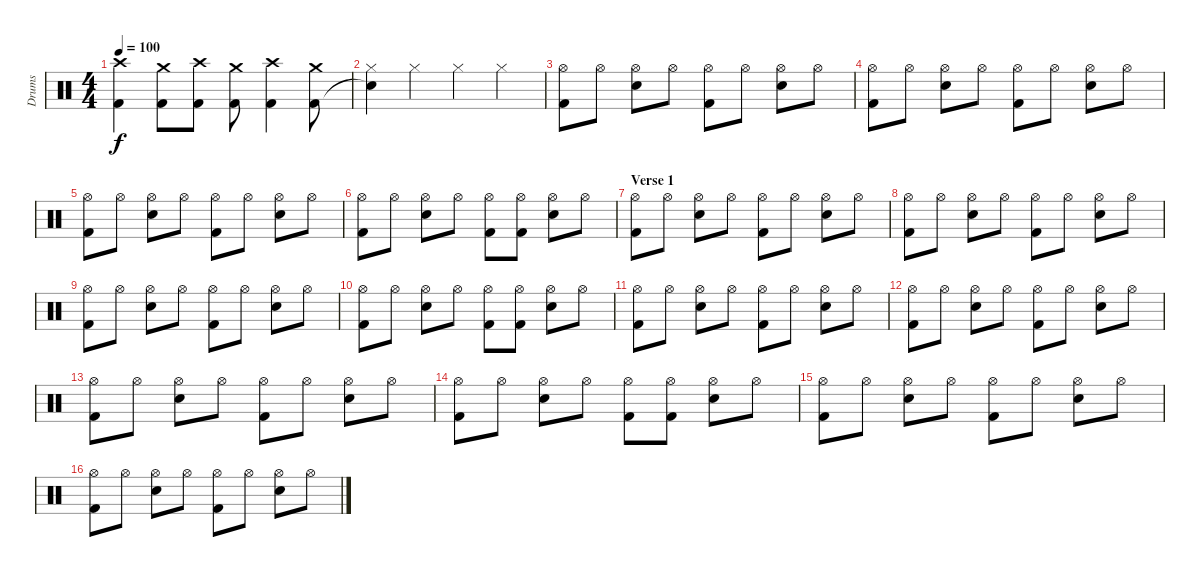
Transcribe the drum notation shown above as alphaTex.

\track ("Drums" "Drums") {instrument percussion}
\staff {score}
\articulation defaults
\ts (4 4)
\tempo 100
\clef neutral
\ks c
("Crash high (hit)" "Kick (hit) 2").4{dy f} ("Crash medium (hit)" "Kick (hit) 2").8 ("Crash high (hit)" "Kick (hit) 2").8 ("Crash medium (hit)" "Kick (hit) 2").8 ("Crash high (hit)" "Kick (hit) 2").4 ("Crash medium (hit)" "Kick (hit) 2").8 |
("Hi-Hat (closed)" "Snare (hit)"{t}).4 "Hi-Hat (closed)".4 "Hi-Hat (closed)".4 "Hi-Hat (closed)".4 |
("Hi-Hat (open)" "Kick (hit) 2").8 "Hi-Hat (open)".8 ("Hi-Hat (open)" "Electric Snare (hit)").8 "Hi-Hat (open)".8 ("Hi-Hat (open)" "Kick (hit) 2").8 "Hi-Hat (open)".8 ("Hi-Hat (open)" "Electric Snare (hit)").8 "Hi-Hat (open)".8 |
("Hi-Hat (open)" "Kick (hit) 2").8 "Hi-Hat (open)".8 ("Hi-Hat (open)" "Electric Snare (hit)").8 "Hi-Hat (open)".8 ("Hi-Hat (open)" "Kick (hit) 2").8 "Hi-Hat (open)".8 ("Hi-Hat (open)" "Electric Snare (hit)").8 "Hi-Hat (open)".8 |
("Hi-Hat (open)" "Kick (hit) 2").8 "Hi-Hat (open)".8 ("Hi-Hat (open)" "Electric Snare (hit)").8 "Hi-Hat (open)".8 ("Hi-Hat (open)" "Kick (hit) 2").8 "Hi-Hat (open)".8 ("Hi-Hat (open)" "Electric Snare (hit)").8 "Hi-Hat (open)".8 |
("Hi-Hat (open)" "Kick (hit) 2").8 "Hi-Hat (open)".8 ("Hi-Hat (open)" "Electric Snare (hit)").8 "Hi-Hat (open)".8 ("Hi-Hat (open)" "Kick (hit) 2").8 ("Hi-Hat (open)" "Kick (hit) 2").8 ("Hi-Hat (open)" "Electric Snare (hit)").8 "Hi-Hat (open)".8 |
\section ("" "Verse 1")
("Hi-Hat (open)" "Kick (hit) 2").8 "Hi-Hat (open)".8 ("Hi-Hat (open)" "Electric Snare (hit)").8 "Hi-Hat (open)".8 ("Hi-Hat (open)" "Kick (hit) 2").8 "Hi-Hat (open)".8 ("Hi-Hat (open)" "Electric Snare (hit)").8 "Hi-Hat (open)".8 |
("Hi-Hat (open)" "Kick (hit) 2").8 "Hi-Hat (open)".8 ("Hi-Hat (open)" "Electric Snare (hit)").8 "Hi-Hat (open)".8 ("Hi-Hat (open)" "Kick (hit) 2").8 "Hi-Hat (open)".8 ("Hi-Hat (open)" "Electric Snare (hit)").8 "Hi-Hat (open)".8 |
("Hi-Hat (open)" "Kick (hit) 2").8 "Hi-Hat (open)".8 ("Hi-Hat (open)" "Electric Snare (hit)").8 "Hi-Hat (open)".8 ("Hi-Hat (open)" "Kick (hit) 2").8 "Hi-Hat (open)".8 ("Hi-Hat (open)" "Electric Snare (hit)").8 "Hi-Hat (open)".8 |
("Hi-Hat (open)" "Kick (hit) 2").8 "Hi-Hat (open)".8 ("Hi-Hat (open)" "Electric Snare (hit)").8 "Hi-Hat (open)".8 ("Hi-Hat (open)" "Kick (hit) 2").8 ("Hi-Hat (open)" "Kick (hit) 2").8 ("Hi-Hat (open)" "Electric Snare (hit)").8 "Hi-Hat (open)".8 |
("Hi-Hat (open)" "Kick (hit) 2").8 "Hi-Hat (open)".8 ("Hi-Hat (open)" "Electric Snare (hit)").8 "Hi-Hat (open)".8 ("Hi-Hat (open)" "Kick (hit) 2").8 "Hi-Hat (open)".8 ("Hi-Hat (open)" "Electric Snare (hit)").8 "Hi-Hat (open)".8 |
("Hi-Hat (open)" "Kick (hit) 2").8 "Hi-Hat (open)".8 ("Hi-Hat (open)" "Electric Snare (hit)").8 "Hi-Hat (open)".8 ("Hi-Hat (open)" "Kick (hit) 2").8 "Hi-Hat (open)".8 ("Hi-Hat (open)" "Electric Snare (hit)").8 "Hi-Hat (open)".8 |
("Hi-Hat (open)" "Kick (hit) 2").8 "Hi-Hat (open)".8 ("Hi-Hat (open)" "Electric Snare (hit)").8 "Hi-Hat (open)".8 ("Hi-Hat (open)" "Kick (hit) 2").8 "Hi-Hat (open)".8 ("Hi-Hat (open)" "Electric Snare (hit)").8 "Hi-Hat (open)".8 |
("Hi-Hat (open)" "Kick (hit) 2").8 "Hi-Hat (open)".8 ("Hi-Hat (open)" "Electric Snare (hit)").8 "Hi-Hat (open)".8 ("Hi-Hat (open)" "Kick (hit) 2").8 ("Hi-Hat (open)" "Kick (hit) 2").8 ("Hi-Hat (open)" "Electric Snare (hit)").8 "Hi-Hat (open)".8 |
("Hi-Hat (open)" "Kick (hit) 2").8 "Hi-Hat (open)".8 ("Hi-Hat (open)" "Electric Snare (hit)").8 "Hi-Hat (open)".8 ("Hi-Hat (open)" "Kick (hit) 2").8 "Hi-Hat (open)".8 ("Hi-Hat (open)" "Electric Snare (hit)").8 "Hi-Hat (open)".8 |
("Hi-Hat (open)" "Kick (hit) 2").8 "Hi-Hat (open)".8 ("Hi-Hat (open)" "Electric Snare (hit)").8 "Hi-Hat (open)".8 ("Hi-Hat (open)" "Kick (hit) 2").8 "Hi-Hat (open)".8 ("Hi-Hat (open)" "Electric Snare (hit)").8 "Hi-Hat (open)".8
